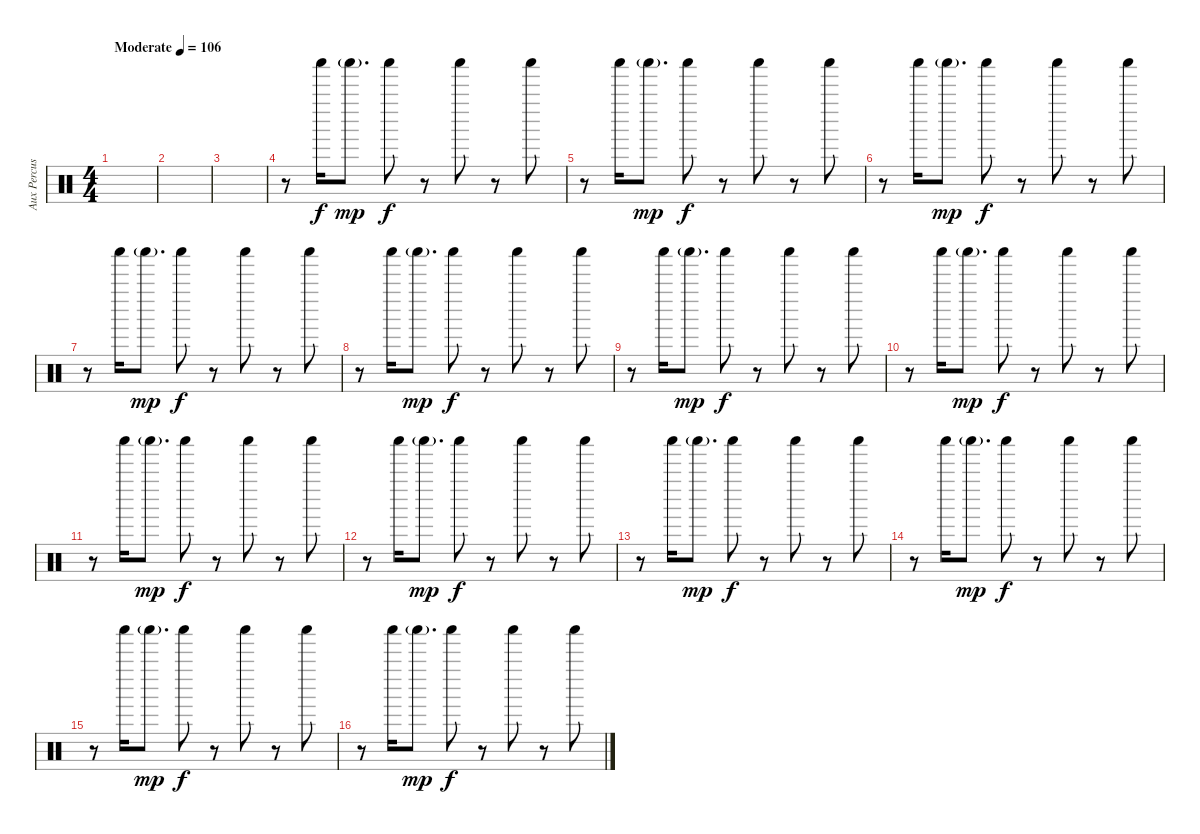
\track ("Aux Percussion" "Aux Percus") {instrument percussion}
\staff {score}
\articulation defaults
\ts (4 4)
\tempo (106 "Moderate")
\clef neutral
\ks c
|
|
|
r.8 "Shaker (hit)".16 "Shaker (hit)"{g}.8{d dy mp} "Shaker (hit)".8{dy f} r.8 "Shaker (hit)".8 r.8 "Shaker (hit)".8 |
r.8 "Shaker (hit)".16 "Shaker (hit)"{g}.8{d dy mp} "Shaker (hit)".8{dy f} r.8 "Shaker (hit)".8 r.8 "Shaker (hit)".8 |
r.8 "Shaker (hit)".16 "Shaker (hit)"{g}.8{d dy mp} "Shaker (hit)".8{dy f} r.8 "Shaker (hit)".8 r.8 "Shaker (hit)".8 |
r.8 "Shaker (hit)".16 "Shaker (hit)"{g}.8{d dy mp} "Shaker (hit)".8{dy f} r.8 "Shaker (hit)".8 r.8 "Shaker (hit)".8 |
r.8 "Shaker (hit)".16 "Shaker (hit)"{g}.8{d dy mp} "Shaker (hit)".8{dy f} r.8 "Shaker (hit)".8 r.8 "Shaker (hit)".8 |
r.8 "Shaker (hit)".16 "Shaker (hit)"{g}.8{d dy mp} "Shaker (hit)".8{dy f} r.8 "Shaker (hit)".8 r.8 "Shaker (hit)".8 |
r.8 "Shaker (hit)".16 "Shaker (hit)"{g}.8{d dy mp} "Shaker (hit)".8{dy f} r.8 "Shaker (hit)".8 r.8 "Shaker (hit)".8 |
r.8 "Shaker (hit)".16 "Shaker (hit)"{g}.8{d dy mp} "Shaker (hit)".8{dy f} r.8 "Shaker (hit)".8 r.8 "Shaker (hit)".8 |
r.8 "Shaker (hit)".16 "Shaker (hit)"{g}.8{d dy mp} "Shaker (hit)".8{dy f} r.8 "Shaker (hit)".8 r.8 "Shaker (hit)".8 |
r.8 "Shaker (hit)".16 "Shaker (hit)"{g}.8{d dy mp} "Shaker (hit)".8{dy f} r.8 "Shaker (hit)".8 r.8 "Shaker (hit)".8 |
r.8 "Shaker (hit)".16 "Shaker (hit)"{g}.8{d dy mp} "Shaker (hit)".8{dy f} r.8 "Shaker (hit)".8 r.8 "Shaker (hit)".8 |
r.8 "Shaker (hit)".16 "Shaker (hit)"{g}.8{d dy mp} "Shaker (hit)".8{dy f} r.8 "Shaker (hit)".8 r.8 "Shaker (hit)".8 |
r.8 "Shaker (hit)".16 "Shaker (hit)"{g}.8{d dy mp} "Shaker (hit)".8{dy f} r.8 "Shaker (hit)".8 r.8 "Shaker (hit)".8
